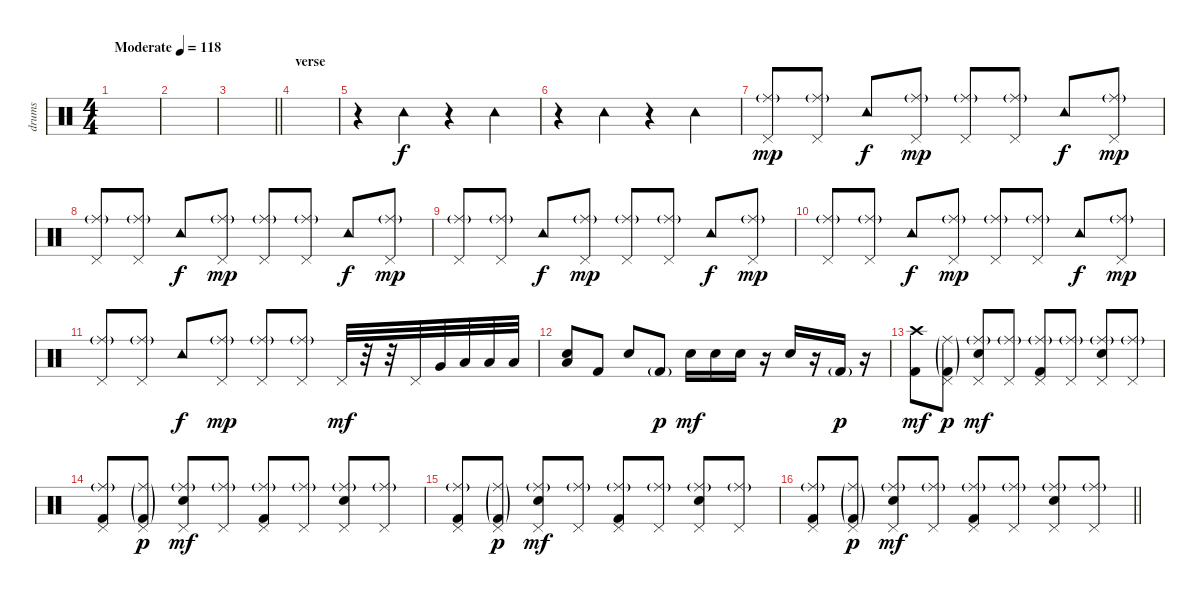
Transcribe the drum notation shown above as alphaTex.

\track ("drums" "drums") {instrument percussion}
\staff {score}
\articulation defaults
\ts (4 4)
\tempo (118 "Moderate")
\clef neutral
\ks c
|
|
\barLineRight lightlight
|
\section ("" "verse")
|
r.4 "Tambourine (hit)".4 r.4 "Tambourine (hit)".4 |
r.4 "Tambourine (hit)".4 r.4 "Tambourine (hit)".4 |
("Pedal Hi-Hat (hit)" "Ride (middle)"{g}).8{dy mp} ("Pedal Hi-Hat (hit)" "Ride (middle)"{g}).8 "Tambourine (hit)".8{dy f} ("Pedal Hi-Hat (hit)" "Ride (middle)"{g}).8{dy mp} ("Pedal Hi-Hat (hit)" "Ride (middle)"{g}).8 ("Pedal Hi-Hat (hit)" "Ride (middle)"{g}).8 "Tambourine (hit)".8{dy f} ("Pedal Hi-Hat (hit)" "Ride (middle)"{g}).8{dy mp} |
("Pedal Hi-Hat (hit)" "Ride (middle)"{g}).8 ("Pedal Hi-Hat (hit)" "Ride (middle)"{g}).8 "Tambourine (hit)".8{dy f} ("Pedal Hi-Hat (hit)" "Ride (middle)"{g}).8{dy mp} ("Pedal Hi-Hat (hit)" "Ride (middle)"{g}).8 ("Pedal Hi-Hat (hit)" "Ride (middle)"{g}).8 "Tambourine (hit)".8{dy f} ("Pedal Hi-Hat (hit)" "Ride (middle)"{g}).8{dy mp} |
("Pedal Hi-Hat (hit)" "Ride (middle)"{g}).8 ("Pedal Hi-Hat (hit)" "Ride (middle)"{g}).8 "Tambourine (hit)".8{dy f} ("Pedal Hi-Hat (hit)" "Ride (middle)"{g}).8{dy mp} ("Pedal Hi-Hat (hit)" "Ride (middle)"{g}).8 ("Pedal Hi-Hat (hit)" "Ride (middle)"{g}).8 "Tambourine (hit)".8{dy f} ("Pedal Hi-Hat (hit)" "Ride (middle)"{g}).8{dy mp} |
("Pedal Hi-Hat (hit)" "Ride (middle)"{g}).8 ("Pedal Hi-Hat (hit)" "Ride (middle)"{g}).8 "Tambourine (hit)".8{dy f} ("Pedal Hi-Hat (hit)" "Ride (middle)"{g}).8{dy mp} ("Pedal Hi-Hat (hit)" "Ride (middle)"{g}).8 ("Pedal Hi-Hat (hit)" "Ride (middle)"{g}).8 "Tambourine (hit)".8{dy f} ("Pedal Hi-Hat (hit)" "Ride (middle)"{g}).8{dy mp} |
("Pedal Hi-Hat (hit)" "Ride (middle)"{g}).8 ("Pedal Hi-Hat (hit)" "Ride (middle)"{g}).8 "Tambourine (hit)".8{dy f} ("Pedal Hi-Hat (hit)" "Ride (middle)"{g}).8{dy mp} ("Pedal Hi-Hat (hit)" "Ride (middle)"{g}).8 ("Pedal Hi-Hat (hit)" "Ride (middle)"{g}).8 "Pedal Hi-Hat (hit)".32{dy mf} r.32 r.32 "Pedal Hi-Hat (hit)".32 "Very Low Tom (hit)".32 "Low Floor Tom (hit)".32 "Low Tom (hit)".32 "Low Floor Tom (hit)".32 |
("Snare (hit) 2" "Low Floor Tom (hit)").8{bd 60} "Kick (hit) 2".8 "Snare (hit) 2".8 "Kick (hit) 2"{g}.8{dy p} "Snare (hit) 2".16{dy mf} "Snare (hit) 2".16 "Snare (hit) 2".16 r.16 "Snare (hit) 2".16 r.16 "Kick (hit) 2"{g}.16{dy p} r.16 |
("Crash high (hit)" "Kick (hit) 2").8{dy mf} ("Ride (middle)"{g} "Pedal Hi-Hat (hit)" "Kick (hit) 2"{g}).8{dy p} ("Ride (middle)"{g} "Snare (hit) 2" "Pedal Hi-Hat (hit)").8{dy mf} ("Ride (middle)"{g} "Pedal Hi-Hat (hit)").8 ("Ride (middle)"{g} "Kick (hit) 2" "Pedal Hi-Hat (hit)").8 ("Ride (middle)"{g} "Pedal Hi-Hat (hit)").8 ("Ride (middle)"{g} "Snare (hit) 2" "Pedal Hi-Hat (hit)").8 ("Ride (middle)"{g} "Pedal Hi-Hat (hit)").8 |
("Ride (middle)"{g} "Kick (hit) 2" "Pedal Hi-Hat (hit)").8 ("Ride (middle)"{g} "Pedal Hi-Hat (hit)" "Kick (hit) 2"{g}).8{dy p} ("Ride (middle)"{g} "Snare (hit) 2" "Pedal Hi-Hat (hit)").8{dy mf} ("Ride (middle)"{g} "Pedal Hi-Hat (hit)").8 ("Ride (middle)"{g} "Kick (hit) 2" "Pedal Hi-Hat (hit)").8 ("Ride (middle)"{g} "Pedal Hi-Hat (hit)").8 ("Ride (middle)"{g} "Snare (hit) 2" "Pedal Hi-Hat (hit)").8 ("Ride (middle)"{g} "Pedal Hi-Hat (hit)").8 |
("Ride (middle)"{g} "Kick (hit) 2" "Pedal Hi-Hat (hit)").8 ("Ride (middle)"{g} "Pedal Hi-Hat (hit)" "Kick (hit) 2"{g}).8{dy p} ("Ride (middle)"{g} "Snare (hit) 2" "Pedal Hi-Hat (hit)").8{dy mf} ("Ride (middle)"{g} "Pedal Hi-Hat (hit)").8 ("Ride (middle)"{g} "Kick (hit) 2" "Pedal Hi-Hat (hit)").8 ("Ride (middle)"{g} "Pedal Hi-Hat (hit)").8 ("Ride (middle)"{g} "Snare (hit) 2" "Pedal Hi-Hat (hit)").8 ("Ride (middle)"{g} "Pedal Hi-Hat (hit)").8 |
\barLineRight lightlight
("Ride (middle)"{g} "Kick (hit) 2" "Pedal Hi-Hat (hit)").8 ("Ride (middle)"{g} "Pedal Hi-Hat (hit)" "Kick (hit) 2"{g}).8{dy p} ("Ride (middle)"{g} "Snare (hit) 2" "Pedal Hi-Hat (hit)").8{dy mf} ("Ride (middle)"{g} "Pedal Hi-Hat (hit)").8 ("Ride (middle)"{g} "Kick (hit) 2" "Pedal Hi-Hat (hit)").8 ("Ride (middle)"{g} "Pedal Hi-Hat (hit)").8 ("Ride (middle)"{g} "Snare (hit) 2" "Pedal Hi-Hat (hit)").8 ("Ride (middle)"{g} "Pedal Hi-Hat (hit)").8
